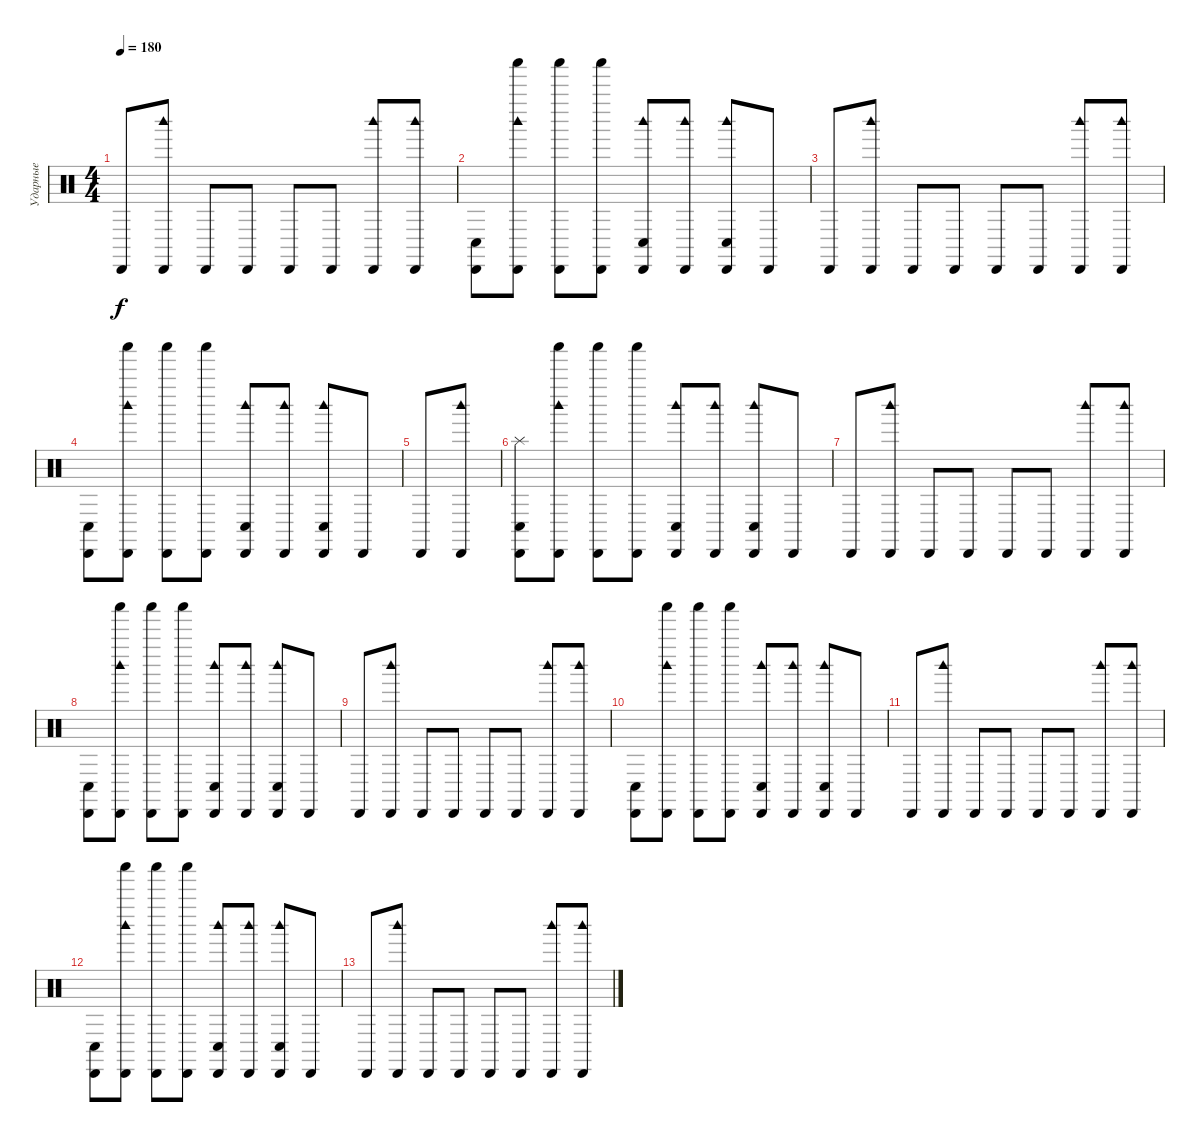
\track ("Ударные" "Ударные") {instrument percussion}
\staff {score}
\articulation defaults
\ts (4 4)
\tempo 180
\clef neutral
\ks c "Cabasa (hit)".8{dy f}
("Woodblock high (hit)" "Cabasa (hit)").8 "Cabasa (hit)".8 "Cabasa (hit)".8 "Cabasa (hit)".8 "Cabasa (hit)".8 ("Woodblock high (hit)" "Cabasa (hit)").8 ("Woodblock high (hit)" "Cabasa (hit)").8 |
("Cabasa (hit)" "Conga low (hit)").8 ("Woodblock high (hit)" "Shaker (hit)" "Cabasa (hit)").8 ("Shaker (hit)" "Cabasa (hit)").8 ("Shaker (hit)" "Cabasa (hit)").8 ("Woodblock high (hit)" "Cabasa (hit)" "Conga low (hit)").8 ("Woodblock high (hit)" "Cabasa (hit)").8 ("Woodblock high (hit)" "Cabasa (hit)" "Conga low (hit)").8 "Cabasa (hit)".8 |
"Cabasa (hit)".8 ("Woodblock high (hit)" "Cabasa (hit)").8 "Cabasa (hit)".8 "Cabasa (hit)".8 "Cabasa (hit)".8 "Cabasa (hit)".8 ("Woodblock high (hit)" "Cabasa (hit)").8 ("Woodblock high (hit)" "Cabasa (hit)").8 |
("Cabasa (hit)" "Conga low (hit)").8 ("Woodblock high (hit)" "Shaker (hit)" "Cabasa (hit)").8 ("Shaker (hit)" "Cabasa (hit)").8 ("Shaker (hit)" "Cabasa (hit)").8 ("Woodblock high (hit)" "Cabasa (hit)" "Conga low (hit)").8 ("Woodblock high (hit)" "Cabasa (hit)").8 ("Woodblock high (hit)" "Cabasa (hit)" "Conga low (hit)").8 "Cabasa (hit)".8 |
"Cabasa (hit)".8 ("Woodblock high (hit)" "Cabasa (hit)").8 |
("Cabasa (hit)" "Splash (hit)" "Conga low (hit)").8 ("Woodblock high (hit)" "Shaker (hit)" "Cabasa (hit)").8 ("Shaker (hit)" "Cabasa (hit)").8 ("Shaker (hit)" "Cabasa (hit)").8 ("Woodblock high (hit)" "Cabasa (hit)" "Conga low (hit)").8 ("Woodblock high (hit)" "Cabasa (hit)").8 ("Woodblock high (hit)" "Cabasa (hit)" "Conga low (hit)").8 "Cabasa (hit)".8 |
"Cabasa (hit)".8 ("Woodblock high (hit)" "Cabasa (hit)").8 "Cabasa (hit)".8 "Cabasa (hit)".8 "Cabasa (hit)".8 "Cabasa (hit)".8 ("Woodblock high (hit)" "Cabasa (hit)").8 ("Woodblock high (hit)" "Cabasa (hit)").8 |
("Cabasa (hit)" "Conga low (hit)").8 ("Woodblock high (hit)" "Shaker (hit)" "Cabasa (hit)").8 ("Shaker (hit)" "Cabasa (hit)").8 ("Shaker (hit)" "Cabasa (hit)").8 ("Woodblock high (hit)" "Cabasa (hit)" "Conga low (hit)").8 ("Woodblock high (hit)" "Cabasa (hit)").8 ("Woodblock high (hit)" "Cabasa (hit)" "Conga low (hit)").8 "Cabasa (hit)".8 |
"Cabasa (hit)".8 ("Woodblock high (hit)" "Cabasa (hit)").8 "Cabasa (hit)".8 "Cabasa (hit)".8 "Cabasa (hit)".8 "Cabasa (hit)".8 ("Woodblock high (hit)" "Cabasa (hit)").8 ("Woodblock high (hit)" "Cabasa (hit)").8 |
("Cabasa (hit)" "Conga low (hit)").8 ("Woodblock high (hit)" "Shaker (hit)" "Cabasa (hit)").8 ("Shaker (hit)" "Cabasa (hit)").8 ("Shaker (hit)" "Cabasa (hit)").8 ("Woodblock high (hit)" "Cabasa (hit)" "Conga low (hit)").8 ("Woodblock high (hit)" "Cabasa (hit)").8 ("Woodblock high (hit)" "Cabasa (hit)" "Conga low (hit)").8 "Cabasa (hit)".8 |
"Cabasa (hit)".8 ("Woodblock high (hit)" "Cabasa (hit)").8 "Cabasa (hit)".8 "Cabasa (hit)".8 "Cabasa (hit)".8 "Cabasa (hit)".8 ("Woodblock high (hit)" "Cabasa (hit)").8 ("Woodblock high (hit)" "Cabasa (hit)").8 |
("Cabasa (hit)" "Conga low (hit)").8 ("Woodblock high (hit)" "Shaker (hit)" "Cabasa (hit)").8 ("Shaker (hit)" "Cabasa (hit)").8 ("Shaker (hit)" "Cabasa (hit)").8 ("Woodblock high (hit)" "Cabasa (hit)" "Conga low (hit)").8 ("Woodblock high (hit)" "Cabasa (hit)").8 ("Woodblock high (hit)" "Cabasa (hit)" "Conga low (hit)").8 "Cabasa (hit)".8 |
"Cabasa (hit)".8 ("Woodblock high (hit)" "Cabasa (hit)").8 "Cabasa (hit)".8 "Cabasa (hit)".8 "Cabasa (hit)".8 "Cabasa (hit)".8 ("Woodblock high (hit)" "Cabasa (hit)").8 ("Woodblock high (hit)" "Cabasa (hit)").8
